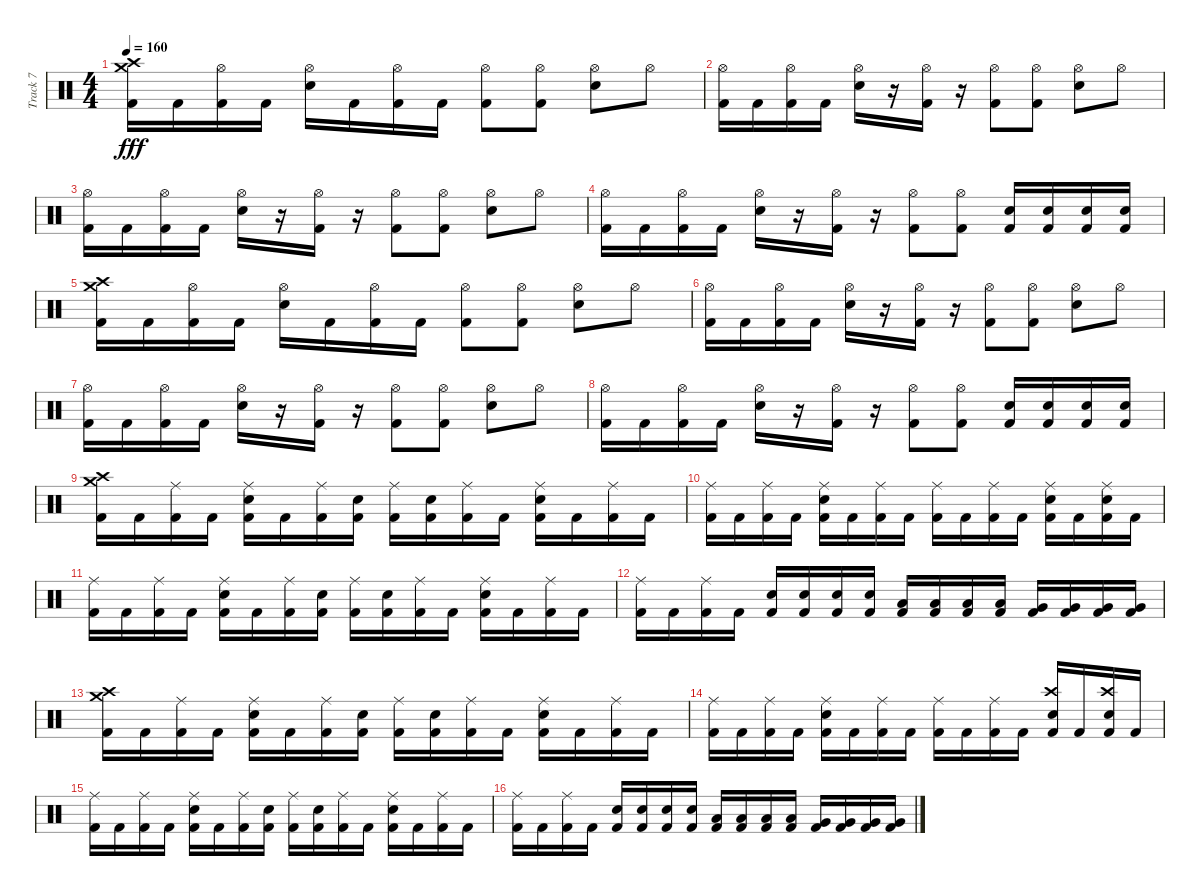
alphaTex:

\track ("Track 7" "Track 7") {instrument percussion}
\staff {score}
\articulation defaults
\ts (4 4)
\tempo 160
\clef neutral
\ks c
("Kick (hit) 2" "Crash medium (hit)" "Crash high (hit)").16{dy fff} "Kick (hit) 2".16 ("Kick (hit) 2" "Hi-Hat (open)").16 "Kick (hit) 2".16 ("Electric Snare (hit)" "Hi-Hat (open)").16 "Kick (hit) 2".16 ("Kick (hit) 2" "Hi-Hat (open)").16 "Kick (hit) 2".16 ("Kick (hit) 2" "Hi-Hat (open)").8 ("Kick (hit) 2" "Hi-Hat (open)").8 ("Electric Snare (hit)" "Hi-Hat (open)").8 "Hi-Hat (open)".8 |
("Kick (hit) 2" "Hi-Hat (open)").16 "Kick (hit) 2".16 ("Kick (hit) 2" "Hi-Hat (open)").16 "Kick (hit) 2".16 ("Electric Snare (hit)" "Hi-Hat (open)").16 r.16 ("Kick (hit) 2" "Hi-Hat (open)").16 r.16 ("Kick (hit) 2" "Hi-Hat (open)").8 ("Kick (hit) 2" "Hi-Hat (open)").8 ("Electric Snare (hit)" "Hi-Hat (open)").8 "Hi-Hat (open)".8 |
("Kick (hit) 2" "Hi-Hat (open)").16 "Kick (hit) 2".16 ("Kick (hit) 2" "Hi-Hat (open)").16 "Kick (hit) 2".16 ("Electric Snare (hit)" "Hi-Hat (open)").16 r.16 ("Kick (hit) 2" "Hi-Hat (open)").16 r.16 ("Kick (hit) 2" "Hi-Hat (open)").8 ("Kick (hit) 2" "Hi-Hat (open)").8 ("Electric Snare (hit)" "Hi-Hat (open)").8 "Hi-Hat (open)".8 |
("Kick (hit) 2" "Hi-Hat (open)").16 "Kick (hit) 2".16 ("Kick (hit) 2" "Hi-Hat (open)").16 "Kick (hit) 2".16 ("Electric Snare (hit)" "Hi-Hat (open)").16 r.16 ("Kick (hit) 2" "Hi-Hat (open)").16 r.16 ("Kick (hit) 2" "Hi-Hat (open)").8 ("Kick (hit) 2" "Hi-Hat (open)").8 ("Kick (hit) 2" "Electric Snare (hit)").16 ("Kick (hit) 2" "Electric Snare (hit)").16 ("Kick (hit) 2" "Electric Snare (hit)").16 ("Kick (hit) 2" "Electric Snare (hit)").16 |
("Kick (hit) 2" "Crash medium (hit)" "Crash high (hit)").16 "Kick (hit) 2".16 ("Kick (hit) 2" "Hi-Hat (open)").16 "Kick (hit) 2".16 ("Electric Snare (hit)" "Hi-Hat (open)").16 "Kick (hit) 2".16 ("Kick (hit) 2" "Hi-Hat (open)").16 "Kick (hit) 2".16 ("Kick (hit) 2" "Hi-Hat (open)").8 ("Kick (hit) 2" "Hi-Hat (open)").8 ("Electric Snare (hit)" "Hi-Hat (open)").8 "Hi-Hat (open)".8 |
("Kick (hit) 2" "Hi-Hat (open)").16 "Kick (hit) 2".16 ("Kick (hit) 2" "Hi-Hat (open)").16 "Kick (hit) 2".16 ("Electric Snare (hit)" "Hi-Hat (open)").16 r.16 ("Kick (hit) 2" "Hi-Hat (open)").16 r.16 ("Kick (hit) 2" "Hi-Hat (open)").8 ("Kick (hit) 2" "Hi-Hat (open)").8 ("Electric Snare (hit)" "Hi-Hat (open)").8 "Hi-Hat (open)".8 |
("Kick (hit) 2" "Hi-Hat (open)").16 "Kick (hit) 2".16 ("Kick (hit) 2" "Hi-Hat (open)").16 "Kick (hit) 2".16 ("Electric Snare (hit)" "Hi-Hat (open)").16 r.16 ("Kick (hit) 2" "Hi-Hat (open)").16 r.16 ("Kick (hit) 2" "Hi-Hat (open)").8 ("Kick (hit) 2" "Hi-Hat (open)").8 ("Electric Snare (hit)" "Hi-Hat (open)").8 "Hi-Hat (open)".8 |
("Kick (hit) 2" "Hi-Hat (open)").16 "Kick (hit) 2".16 ("Kick (hit) 2" "Hi-Hat (open)").16 "Kick (hit) 2".16 ("Electric Snare (hit)" "Hi-Hat (open)").16 r.16 ("Kick (hit) 2" "Hi-Hat (open)").16 r.16 ("Kick (hit) 2" "Hi-Hat (open)").8 ("Kick (hit) 2" "Hi-Hat (open)").8 ("Kick (hit) 2" "Electric Snare (hit)").16 ("Kick (hit) 2" "Electric Snare (hit)").16 ("Kick (hit) 2" "Electric Snare (hit)").16 ("Kick (hit) 2" "Electric Snare (hit)").16 |
("Kick (hit) 2" "Crash medium (hit)" "Crash high (hit)").16 "Kick (hit) 2".16 ("Kick (hit) 2" "Ride (middle)").16 "Kick (hit) 2".16 ("Kick (hit) 2" "Electric Snare (hit)" "Ride (middle)").16 "Kick (hit) 2".16 ("Kick (hit) 2" "Ride (middle)").16 ("Kick (hit) 2" "Electric Snare (hit)").16 ("Kick (hit) 2" "Ride (middle)").16 ("Kick (hit) 2" "Electric Snare (hit)").16 ("Kick (hit) 2" "Ride (middle)").16 "Kick (hit) 2".16 ("Kick (hit) 2" "Electric Snare (hit)" "Ride (middle)").16 "Kick (hit) 2".16 ("Kick (hit) 2" "Ride (middle)").16 "Kick (hit) 2".16 |
("Kick (hit) 2" "Ride (middle)").16 "Kick (hit) 2".16 ("Kick (hit) 2" "Ride (middle)").16 "Kick (hit) 2".16 ("Kick (hit) 2" "Electric Snare (hit)" "Ride (middle)").16 "Kick (hit) 2".16 ("Kick (hit) 2" "Ride (middle)").16 "Kick (hit) 2".16 ("Kick (hit) 2" "Ride (middle)").16 "Kick (hit) 2".16 ("Kick (hit) 2" "Ride (middle)").16 "Kick (hit) 2".16 ("Kick (hit) 2" "Electric Snare (hit)" "Ride (middle)").16 "Kick (hit) 2".16 ("Kick (hit) 2" "Electric Snare (hit)" "Ride (middle)").16 "Kick (hit) 2".16 |
("Kick (hit) 2" "Ride (middle)").16 "Kick (hit) 2".16 ("Kick (hit) 2" "Ride (middle)").16 "Kick (hit) 2".16 ("Kick (hit) 2" "Electric Snare (hit)" "Ride (middle)").16 "Kick (hit) 2".16 ("Kick (hit) 2" "Ride (middle)").16 ("Kick (hit) 2" "Electric Snare (hit)").16 ("Kick (hit) 2" "Ride (middle)").16 ("Kick (hit) 2" "Electric Snare (hit)").16 ("Kick (hit) 2" "Ride (middle)").16 "Kick (hit) 2".16 ("Kick (hit) 2" "Electric Snare (hit)" "Ride (middle)").16 "Kick (hit) 2".16 ("Kick (hit) 2" "Ride (middle)").16 "Kick (hit) 2".16 |
("Kick (hit) 2" "Ride (middle)").16 "Kick (hit) 2".16 ("Kick (hit) 2" "Ride (middle)").16 "Kick (hit) 2".16 ("Kick (hit) 2" "Electric Snare (hit)").16 ("Kick (hit) 2" "Electric Snare (hit)").16 ("Kick (hit) 2" "Electric Snare (hit)").16 ("Kick (hit) 2" "Electric Snare (hit)").16 ("Kick (hit) 2" "Low Tom (hit)").16 ("Kick (hit) 2" "Low Tom (hit)").16 ("Kick (hit) 2" "Low Tom (hit)").16 ("Kick (hit) 2" "Low Tom (hit)").16 ("Kick (hit) 2" "Very Low Tom (hit)").16 ("Kick (hit) 2" "Very Low Tom (hit)").16 ("Kick (hit) 2" "Very Low Tom (hit)").16 ("Kick (hit) 2" "Very Low Tom (hit)").16 |
("Kick (hit) 2" "Crash medium (hit)" "Crash high (hit)").16 "Kick (hit) 2".16 ("Kick (hit) 2" "Ride (middle)").16 "Kick (hit) 2".16 ("Kick (hit) 2" "Electric Snare (hit)" "Ride (middle)").16 "Kick (hit) 2".16 ("Kick (hit) 2" "Ride (middle)").16 ("Kick (hit) 2" "Electric Snare (hit)").16 ("Kick (hit) 2" "Ride (middle)").16 ("Kick (hit) 2" "Electric Snare (hit)").16 ("Kick (hit) 2" "Ride (middle)").16 "Kick (hit) 2".16 ("Kick (hit) 2" "Electric Snare (hit)" "Ride (middle)").16 "Kick (hit) 2".16 ("Kick (hit) 2" "Ride (middle)").16 "Kick (hit) 2".16 |
("Kick (hit) 2" "Ride (middle)").16 "Kick (hit) 2".16 ("Kick (hit) 2" "Ride (middle)").16 "Kick (hit) 2".16 ("Kick (hit) 2" "Electric Snare (hit)" "Ride (middle)").16 "Kick (hit) 2".16 ("Kick (hit) 2" "Ride (middle)").16 "Kick (hit) 2".16 ("Kick (hit) 2" "Ride (middle)").16 "Kick (hit) 2".16 ("Kick (hit) 2" "Ride (middle)").16 "Kick (hit) 2".16 ("Kick (hit) 2" "Electric Snare (hit)" "Crash high (hit)").16 "Kick (hit) 2".16 ("Kick (hit) 2" "Electric Snare (hit)" "Crash high (hit)").16 "Kick (hit) 2".16 |
("Kick (hit) 2" "Ride (middle)").16 "Kick (hit) 2".16 ("Kick (hit) 2" "Ride (middle)").16 "Kick (hit) 2".16 ("Kick (hit) 2" "Electric Snare (hit)" "Ride (middle)").16 "Kick (hit) 2".16 ("Kick (hit) 2" "Ride (middle)").16 ("Kick (hit) 2" "Electric Snare (hit)").16 ("Kick (hit) 2" "Ride (middle)").16 ("Kick (hit) 2" "Electric Snare (hit)").16 ("Kick (hit) 2" "Ride (middle)").16 "Kick (hit) 2".16 ("Kick (hit) 2" "Electric Snare (hit)" "Ride (middle)").16 "Kick (hit) 2".16 ("Kick (hit) 2" "Ride (middle)").16 "Kick (hit) 2".16 |
("Kick (hit) 2" "Ride (middle)").16 "Kick (hit) 2".16 ("Kick (hit) 2" "Ride (middle)").16 "Kick (hit) 2".16 ("Kick (hit) 2" "Electric Snare (hit)").16 ("Kick (hit) 2" "Electric Snare (hit)").16 ("Kick (hit) 2" "Electric Snare (hit)").16 ("Kick (hit) 2" "Electric Snare (hit)").16 ("Kick (hit) 2" "Low Tom (hit)").16 ("Kick (hit) 2" "Low Tom (hit)").16 ("Kick (hit) 2" "Low Tom (hit)").16 ("Kick (hit) 2" "Low Tom (hit)").16 ("Kick (hit) 2" "Very Low Tom (hit)").16 ("Kick (hit) 2" "Very Low Tom (hit)").16 ("Kick (hit) 2" "Very Low Tom (hit)").16 ("Kick (hit) 2" "Very Low Tom (hit)").16
